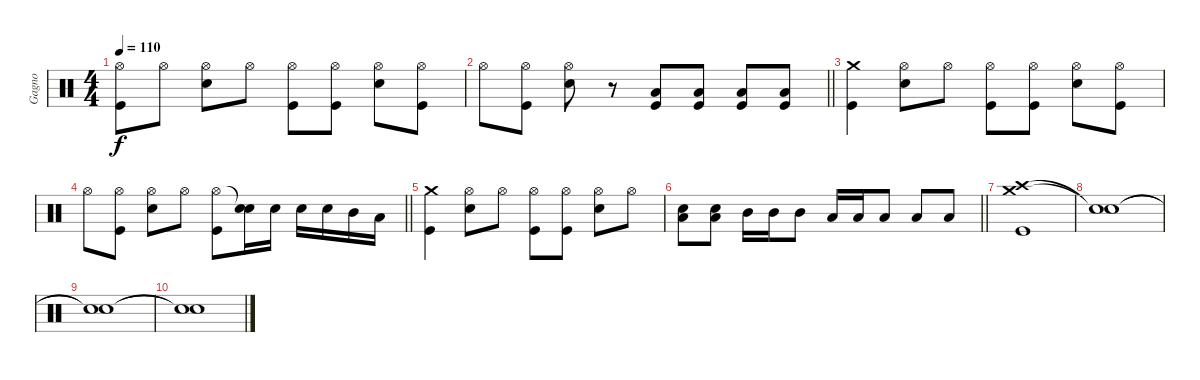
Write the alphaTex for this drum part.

\track ("Gagno" "Gagno") {instrument percussion}
\staff {score}
\articulation defaults
\ts (4 4)
\tempo 110
\clef neutral
\ks c
("Hi-Hat (open)" "Kick (hit)").8{dy f} "Hi-Hat (open)".8 ("Hi-Hat (open)" "Snare (hit) 2").8 "Hi-Hat (open)".8 ("Hi-Hat (open)" "Kick (hit)").8 ("Hi-Hat (open)" "Kick (hit)").8 ("Hi-Hat (open)" "Snare (hit) 2").8 ("Hi-Hat (open)" "Kick (hit)").8 |
\barLineRight lightlight "Hi-Hat (open)".8
("Hi-Hat (open)" "Kick (hit)").8 ("Hi-Hat (open)" "Snare (hit) 2").8 r.8 ("Low Floor Tom (hit)" "Kick (hit)").8 ("Low Floor Tom (hit)" "Kick (hit)").8 ("Low Floor Tom (hit)" "Kick (hit)").8 ("Low Floor Tom (hit)" "Kick (hit)").8 |
("Crash medium (hit)" "Kick (hit)").4 ("Hi-Hat (open)" "Snare (hit) 2").8 "Hi-Hat (open)".8 ("Hi-Hat (open)" "Kick (hit)").8 ("Hi-Hat (open)" "Kick (hit)").8 ("Hi-Hat (open)" "Snare (hit) 2").8 ("Hi-Hat (open)" "Kick (hit)").8 |
\barLineRight lightlight "Hi-Hat (open)".8
("Hi-Hat (open)" "Kick (hit)").8 ("Hi-Hat (open)" "Snare (hit) 2").8 "Hi-Hat (open)".8 ("Hi-Hat (open)" "Kick (hit)").8 ("Snare (hit)"{t} "Snare (hit) 2").16 "Snare (hit) 2".16 "Snare (hit) 2".16 "Snare (hit) 2".16 "Mid Tom (hit)".16 "Low Tom (hit)".16 |
("Crash medium (hit)" "Kick (hit)").4 ("Hi-Hat (open)" "Snare (hit) 2").8 "Hi-Hat (open)".8 ("Hi-Hat (open)" "Kick (hit)").8 ("Hi-Hat (open)" "Kick (hit)").8 ("Hi-Hat (open)" "Snare (hit) 2").8 "Hi-Hat (open)".8 |
\barLineRight lightlight
("Low Floor Tom (hit)" "Snare (hit) 2").8 ("Low Floor Tom (hit)" "Snare (hit) 2").8 "Mid Tom (hit)".16 "Mid Tom (hit)".16 "Mid Tom (hit)".8 "Low Tom (hit)".16 "Low Tom (hit)".16 "Low Tom (hit)".8 "Low Floor Tom (hit)".8 "Low Floor Tom (hit)".8 |
("Crash high (hit)" "Crash medium (hit)" "Kick (hit)").1 |
("Snare (hit)"{t} "Snare (hit)"{t}).1 |
("Snare (hit)"{t} "Snare (hit)"{t}).1 |
("Snare (hit)"{t} "Snare (hit)"{t}).1
